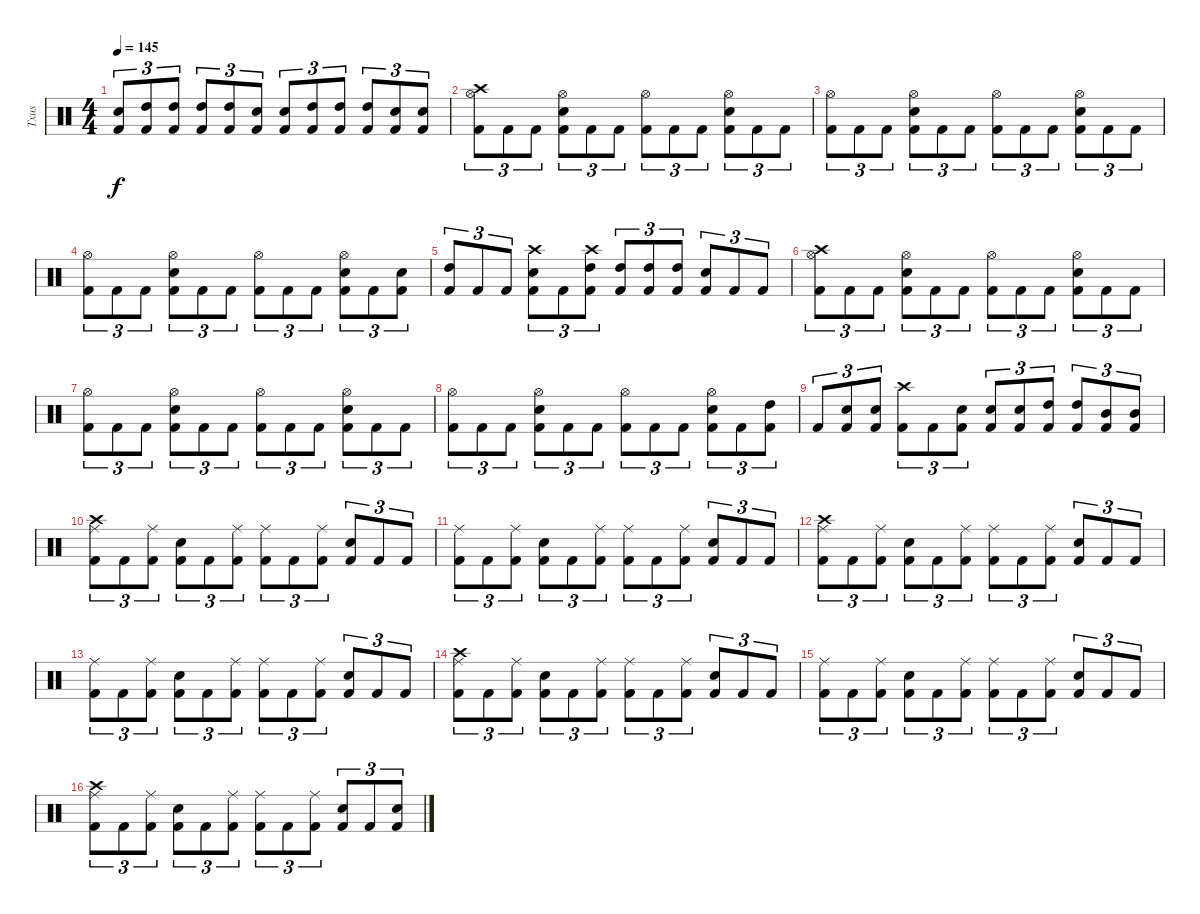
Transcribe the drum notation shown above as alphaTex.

\track ("Txus" "Txus") {instrument percussion}
\staff {score}
\articulation defaults
\ts (4 4)
\tempo 145
\clef neutral
\ks c
("Kick (hit) 2" "Electric Snare (hit)").8{tu (3 2) dy f} ("Kick (hit) 2" "High Tom (hit)").8{tu (3 2)} ("Kick (hit) 2" "High Tom (hit)").8{tu (3 2)} ("Kick (hit) 2" "High Tom (hit)").8{tu (3 2)} ("Kick (hit) 2" "High Tom (hit)").8{tu (3 2)} ("Kick (hit) 2" "Electric Snare (hit)").8{tu (3 2)} ("Kick (hit) 2" "Electric Snare (hit)").8{tu (3 2)} ("Kick (hit) 2" "High Tom (hit)").8{tu (3 2)} ("Kick (hit) 2" "High Tom (hit)").8{tu (3 2)} ("Kick (hit) 2" "High Tom (hit)").8{tu (3 2)} ("Kick (hit) 2" "Electric Snare (hit)").8{tu (3 2)} ("Kick (hit) 2" "Electric Snare (hit)").8{tu (3 2)} |
("Kick (hit) 2" "Hi-Hat (open)" "Crash high (hit)").8{tu (3 2)} "Kick (hit) 2".8{tu (3 2)} "Kick (hit) 2".8{tu (3 2)} ("Kick (hit) 2" "Hi-Hat (open)" "Electric Snare (hit)").8{tu (3 2)} "Kick (hit) 2".8{tu (3 2)} "Kick (hit) 2".8{tu (3 2)} ("Kick (hit) 2" "Hi-Hat (open)").8{tu (3 2)} "Kick (hit) 2".8{tu (3 2)} "Kick (hit) 2".8{tu (3 2)} ("Kick (hit) 2" "Hi-Hat (open)" "Electric Snare (hit)").8{tu (3 2)} "Kick (hit) 2".8{tu (3 2)} "Kick (hit) 2".8{tu (3 2)} |
("Kick (hit) 2" "Hi-Hat (open)").8{tu (3 2)} "Kick (hit) 2".8{tu (3 2)} "Kick (hit) 2".8{tu (3 2)} ("Kick (hit) 2" "Hi-Hat (open)" "Electric Snare (hit)").8{tu (3 2)} "Kick (hit) 2".8{tu (3 2)} "Kick (hit) 2".8{tu (3 2)} ("Kick (hit) 2" "Hi-Hat (open)").8{tu (3 2)} "Kick (hit) 2".8{tu (3 2)} "Kick (hit) 2".8{tu (3 2)} ("Kick (hit) 2" "Hi-Hat (open)" "Electric Snare (hit)").8{tu (3 2)} "Kick (hit) 2".8{tu (3 2)} "Kick (hit) 2".8{tu (3 2)} |
("Kick (hit) 2" "Hi-Hat (open)").8{tu (3 2)} "Kick (hit) 2".8{tu (3 2)} "Kick (hit) 2".8{tu (3 2)} ("Kick (hit) 2" "Hi-Hat (open)" "Electric Snare (hit)").8{tu (3 2)} "Kick (hit) 2".8{tu (3 2)} "Kick (hit) 2".8{tu (3 2)} ("Kick (hit) 2" "Hi-Hat (open)").8{tu (3 2)} "Kick (hit) 2".8{tu (3 2)} "Kick (hit) 2".8{tu (3 2)} ("Kick (hit) 2" "Hi-Hat (open)" "Electric Snare (hit)").8{tu (3 2)} "Kick (hit) 2".8{tu (3 2)} ("Kick (hit) 2" "Electric Snare (hit)").8{tu (3 2)} |
("Kick (hit) 2" "High Tom (hit)").8{tu (3 2)} "Kick (hit) 2".8{tu (3 2)} "Kick (hit) 2".8{tu (3 2)} ("Kick (hit) 2" "Electric Snare (hit)" "Crash high (hit)").8{tu (3 2)} "Kick (hit) 2".8{tu (3 2)} ("Kick (hit) 2" "High Tom (hit)" "Crash high (hit)").8{tu (3 2)} ("Kick (hit) 2" "High Tom (hit)").8{tu (3 2)} ("Kick (hit) 2" "High Tom (hit)").8{tu (3 2)} ("Kick (hit) 2" "High Tom (hit)").8{tu (3 2)} ("Kick (hit) 2" "Electric Snare (hit)").8{tu (3 2)} "Kick (hit) 2".8{tu (3 2)} "Kick (hit) 2".8{tu (3 2)} |
("Kick (hit) 2" "Hi-Hat (open)" "Crash high (hit)").8{tu (3 2)} "Kick (hit) 2".8{tu (3 2)} "Kick (hit) 2".8{tu (3 2)} ("Kick (hit) 2" "Hi-Hat (open)" "Electric Snare (hit)").8{tu (3 2)} "Kick (hit) 2".8{tu (3 2)} "Kick (hit) 2".8{tu (3 2)} ("Kick (hit) 2" "Hi-Hat (open)").8{tu (3 2)} "Kick (hit) 2".8{tu (3 2)} "Kick (hit) 2".8{tu (3 2)} ("Kick (hit) 2" "Hi-Hat (open)" "Electric Snare (hit)").8{tu (3 2)} "Kick (hit) 2".8{tu (3 2)} "Kick (hit) 2".8{tu (3 2)} |
("Kick (hit) 2" "Hi-Hat (open)").8{tu (3 2)} "Kick (hit) 2".8{tu (3 2)} "Kick (hit) 2".8{tu (3 2)} ("Kick (hit) 2" "Hi-Hat (open)" "Electric Snare (hit)").8{tu (3 2)} "Kick (hit) 2".8{tu (3 2)} "Kick (hit) 2".8{tu (3 2)} ("Kick (hit) 2" "Hi-Hat (open)").8{tu (3 2)} "Kick (hit) 2".8{tu (3 2)} "Kick (hit) 2".8{tu (3 2)} ("Kick (hit) 2" "Hi-Hat (open)" "Electric Snare (hit)").8{tu (3 2)} "Kick (hit) 2".8{tu (3 2)} "Kick (hit) 2".8{tu (3 2)} |
("Kick (hit) 2" "Hi-Hat (open)").8{tu (3 2)} "Kick (hit) 2".8{tu (3 2)} "Kick (hit) 2".8{tu (3 2)} ("Kick (hit) 2" "Hi-Hat (open)" "Electric Snare (hit)").8{tu (3 2)} "Kick (hit) 2".8{tu (3 2)} "Kick (hit) 2".8{tu (3 2)} ("Kick (hit) 2" "Hi-Hat (open)").8{tu (3 2)} "Kick (hit) 2".8{tu (3 2)} "Kick (hit) 2".8{tu (3 2)} ("Kick (hit) 2" "Hi-Hat (open)" "Electric Snare (hit)").8{tu (3 2)} "Kick (hit) 2".8{tu (3 2)} ("Kick (hit) 2" "High Tom (hit)").8{tu (3 2)} |
"Kick (hit) 2".8{tu (3 2)} ("Kick (hit) 2" "Electric Snare (hit)").8{tu (3 2)} ("Kick (hit) 2" "Electric Snare (hit)").8{tu (3 2)} ("Kick (hit) 2" "Crash high (hit)").8{tu (3 2)} "Kick (hit) 2".8{tu (3 2)} ("Kick (hit) 2" "Electric Snare (hit)").8{tu (3 2)} ("Kick (hit) 2" "Electric Snare (hit)").8{tu (3 2)} ("Kick (hit) 2" "Electric Snare (hit)").8{tu (3 2)} ("Kick (hit) 2" "High Tom (hit)").8{tu (3 2)} ("Kick (hit) 2" "High Tom (hit)").8{tu (3 2)} ("Kick (hit) 2" "Mid Tom (hit)").8{tu (3 2)} ("Kick (hit) 2" "Mid Tom (hit)").8{tu (3 2)} |
("Kick (hit) 2" "Ride (middle)" "Crash high (hit)").8{tu (3 2)} "Kick (hit) 2".8{tu (3 2)} ("Kick (hit) 2" "Ride (middle)").8{tu (3 2)} ("Kick (hit) 2" "Electric Snare (hit)").8{tu (3 2)} "Kick (hit) 2".8{tu (3 2)} ("Kick (hit) 2" "Ride (middle)").8{tu (3 2)} ("Kick (hit) 2" "Ride (middle)").8{tu (3 2)} "Kick (hit) 2".8{tu (3 2)} ("Kick (hit) 2" "Ride (middle)").8{tu (3 2)} ("Kick (hit) 2" "Electric Snare (hit)").8{tu (3 2)} "Kick (hit) 2".8{tu (3 2)} "Kick (hit) 2".8{tu (3 2)} |
("Kick (hit) 2" "Ride (middle)").8{tu (3 2)} "Kick (hit) 2".8{tu (3 2)} ("Kick (hit) 2" "Ride (middle)").8{tu (3 2)} ("Kick (hit) 2" "Electric Snare (hit)").8{tu (3 2)} "Kick (hit) 2".8{tu (3 2)} ("Kick (hit) 2" "Ride (middle)").8{tu (3 2)} ("Kick (hit) 2" "Ride (middle)").8{tu (3 2)} "Kick (hit) 2".8{tu (3 2)} ("Kick (hit) 2" "Ride (middle)").8{tu (3 2)} ("Kick (hit) 2" "Electric Snare (hit)").8{tu (3 2)} "Kick (hit) 2".8{tu (3 2)} "Kick (hit) 2".8{tu (3 2)} |
("Kick (hit) 2" "Ride (middle)" "Crash high (hit)").8{tu (3 2)} "Kick (hit) 2".8{tu (3 2)} ("Kick (hit) 2" "Ride (middle)").8{tu (3 2)} ("Kick (hit) 2" "Electric Snare (hit)").8{tu (3 2)} "Kick (hit) 2".8{tu (3 2)} ("Kick (hit) 2" "Ride (middle)").8{tu (3 2)} ("Kick (hit) 2" "Ride (middle)").8{tu (3 2)} "Kick (hit) 2".8{tu (3 2)} ("Kick (hit) 2" "Ride (middle)").8{tu (3 2)} ("Kick (hit) 2" "Electric Snare (hit)").8{tu (3 2)} "Kick (hit) 2".8{tu (3 2)} "Kick (hit) 2".8{tu (3 2)} |
("Kick (hit) 2" "Ride (middle)").8{tu (3 2)} "Kick (hit) 2".8{tu (3 2)} ("Kick (hit) 2" "Ride (middle)").8{tu (3 2)} ("Kick (hit) 2" "Electric Snare (hit)").8{tu (3 2)} "Kick (hit) 2".8{tu (3 2)} ("Kick (hit) 2" "Ride (middle)").8{tu (3 2)} ("Kick (hit) 2" "Ride (middle)").8{tu (3 2)} "Kick (hit) 2".8{tu (3 2)} ("Kick (hit) 2" "Ride (middle)").8{tu (3 2)} ("Kick (hit) 2" "Electric Snare (hit)").8{tu (3 2)} "Kick (hit) 2".8{tu (3 2)} "Kick (hit) 2".8{tu (3 2)} |
("Kick (hit) 2" "Ride (middle)" "Crash high (hit)").8{tu (3 2)} "Kick (hit) 2".8{tu (3 2)} ("Kick (hit) 2" "Ride (middle)").8{tu (3 2)} ("Kick (hit) 2" "Electric Snare (hit)").8{tu (3 2)} "Kick (hit) 2".8{tu (3 2)} ("Kick (hit) 2" "Ride (middle)").8{tu (3 2)} ("Kick (hit) 2" "Ride (middle)").8{tu (3 2)} "Kick (hit) 2".8{tu (3 2)} ("Kick (hit) 2" "Ride (middle)").8{tu (3 2)} ("Kick (hit) 2" "Electric Snare (hit)").8{tu (3 2)} "Kick (hit) 2".8{tu (3 2)} "Kick (hit) 2".8{tu (3 2)} |
("Kick (hit) 2" "Ride (middle)").8{tu (3 2)} "Kick (hit) 2".8{tu (3 2)} ("Kick (hit) 2" "Ride (middle)").8{tu (3 2)} ("Kick (hit) 2" "Electric Snare (hit)").8{tu (3 2)} "Kick (hit) 2".8{tu (3 2)} ("Kick (hit) 2" "Ride (middle)").8{tu (3 2)} ("Kick (hit) 2" "Ride (middle)").8{tu (3 2)} "Kick (hit) 2".8{tu (3 2)} ("Kick (hit) 2" "Ride (middle)").8{tu (3 2)} ("Kick (hit) 2" "Electric Snare (hit)").8{tu (3 2)} "Kick (hit) 2".8{tu (3 2)} "Kick (hit) 2".8{tu (3 2)} |
("Kick (hit) 2" "Ride (middle)" "Crash high (hit)").8{tu (3 2)} "Kick (hit) 2".8{tu (3 2)} ("Kick (hit) 2" "Ride (middle)").8{tu (3 2)} ("Kick (hit) 2" "Electric Snare (hit)").8{tu (3 2)} "Kick (hit) 2".8{tu (3 2)} ("Kick (hit) 2" "Ride (middle)").8{tu (3 2)} ("Kick (hit) 2" "Ride (middle)").8{tu (3 2)} "Kick (hit) 2".8{tu (3 2)} ("Kick (hit) 2" "Ride (middle)").8{tu (3 2)} ("Kick (hit) 2" "Electric Snare (hit)").8{tu (3 2)} "Kick (hit) 2".8{tu (3 2)} ("Kick (hit) 2" "Electric Snare (hit)").8{tu (3 2)}
